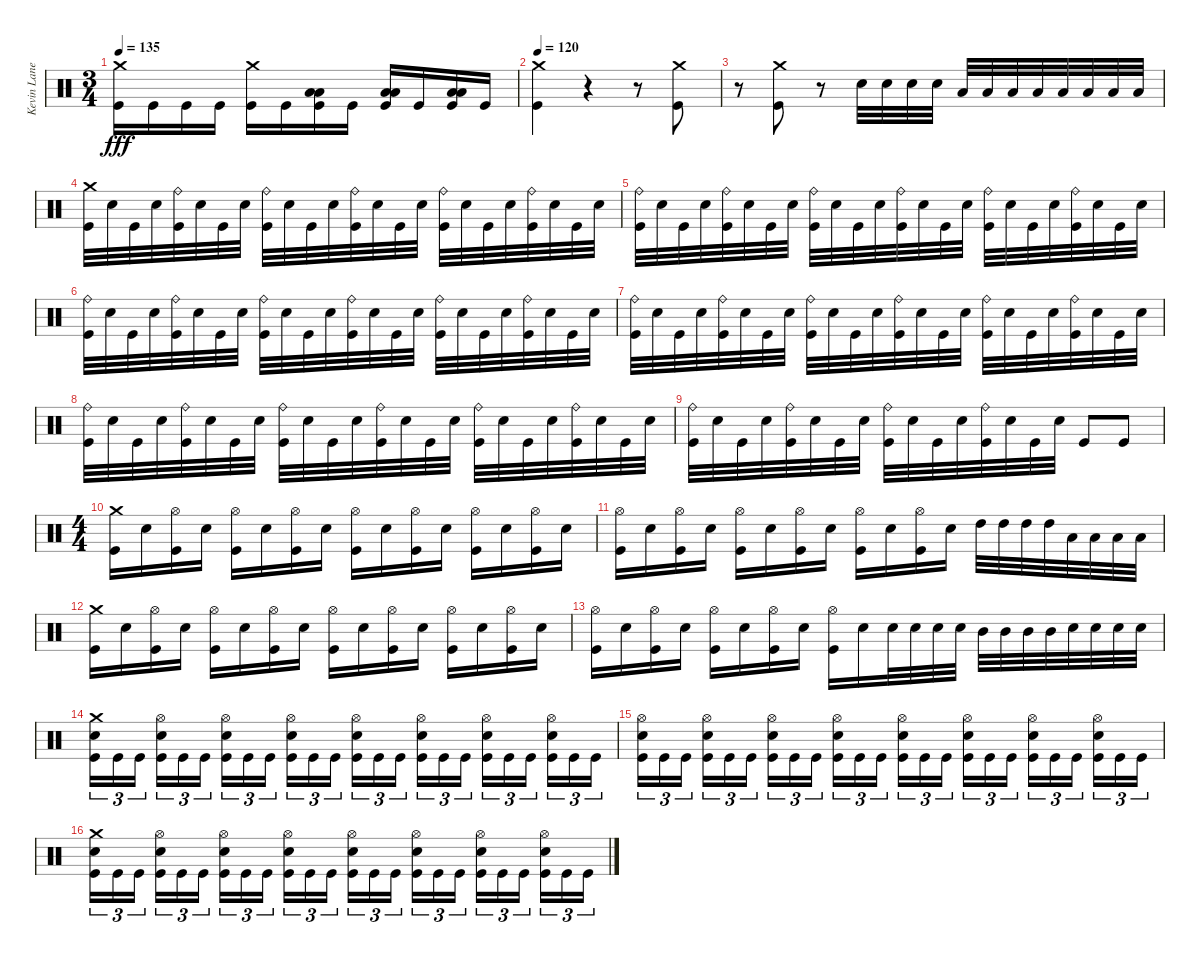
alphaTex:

\track ("Kevin Lane" "Kevin Lane") {instrument percussion}
\staff {score}
\articulation defaults
\ts (3 4)
\tempo 135
\clef neutral
\ks c
("Crash medium (hit)" "Kick (hit)").16{dy fff} "Kick (hit)".16 "Kick (hit)".16 "Kick (hit)".16 ("Crash medium (hit)" "Kick (hit)").16 "Kick (hit)".16 ("Low Tom (hit)" "Low Floor Tom (hit)" "Kick (hit)").16 "Kick (hit)".16 ("Low Tom (hit)" "Low Floor Tom (hit)" "Kick (hit)").16 "Kick (hit)".16 ("Low Tom (hit)" "Low Floor Tom (hit)" "Kick (hit)").16 "Kick (hit)".16 |
\tempo 119
\tempo 120
("Crash medium (hit)" "Kick (hit)").4 r.4 r.8 ("Crash medium (hit)" "Kick (hit)").8 |
r.8{volume 0} ("Crash medium (hit)" "Kick (hit)").8{volume 13} r.8{volume 0} "Snare (hit) 2".32{volume 13} "Snare (hit) 2".32 "Snare (hit) 2".32 "Snare (hit) 2".32 "Low Tom (hit)".32 "Low Tom (hit)".32 "Low Tom (hit)".32 "Low Tom (hit)".32 "Low Floor Tom (hit)".32 "Low Floor Tom (hit)".32 "Low Floor Tom (hit)".32 "Low Floor Tom (hit)".32 |
("Crash medium (hit)" "Kick (hit)").32 "Snare (hit) 2".32 "Kick (hit)".32 "Snare (hit) 2".32 ("Ride (bell)" "Kick (hit)").32 "Snare (hit) 2".32 "Kick (hit)".32 "Snare (hit) 2".32 ("Ride (bell)" "Kick (hit)").32 "Snare (hit) 2".32 "Kick (hit)".32 "Snare (hit) 2".32 ("Ride (bell)" "Kick (hit)").32 "Snare (hit) 2".32 "Kick (hit)".32 "Snare (hit) 2".32 ("Ride (bell)" "Kick (hit)").32 "Snare (hit) 2".32 "Kick (hit)".32 "Snare (hit) 2".32 ("Ride (bell)" "Kick (hit)").32 "Snare (hit) 2".32 "Kick (hit)".32 "Snare (hit) 2".32 |
("Ride (bell)" "Kick (hit)").32 "Snare (hit) 2".32 "Kick (hit)".32 "Snare (hit) 2".32 ("Ride (bell)" "Kick (hit)").32 "Snare (hit) 2".32 "Kick (hit)".32 "Snare (hit) 2".32 ("Ride (bell)" "Kick (hit)").32 "Snare (hit) 2".32 "Kick (hit)".32 "Snare (hit) 2".32 ("Ride (bell)" "Kick (hit)").32 "Snare (hit) 2".32 "Kick (hit)".32 "Snare (hit) 2".32 ("Ride (bell)" "Kick (hit)").32 "Snare (hit) 2".32 "Kick (hit)".32 "Snare (hit) 2".32 ("Ride (bell)" "Kick (hit)").32 "Snare (hit) 2".32 "Kick (hit)".32 "Snare (hit) 2".32 |
("Ride (bell)" "Kick (hit)").32 "Snare (hit) 2".32 "Kick (hit)".32 "Snare (hit) 2".32 ("Ride (bell)" "Kick (hit)").32 "Snare (hit) 2".32 "Kick (hit)".32 "Snare (hit) 2".32 ("Ride (bell)" "Kick (hit)").32 "Snare (hit) 2".32 "Kick (hit)".32 "Snare (hit) 2".32 ("Ride (bell)" "Kick (hit)").32 "Snare (hit) 2".32 "Kick (hit)".32 "Snare (hit) 2".32 ("Ride (bell)" "Kick (hit)").32 "Snare (hit) 2".32 "Kick (hit)".32 "Snare (hit) 2".32 ("Ride (bell)" "Kick (hit)").32 "Snare (hit) 2".32 "Kick (hit)".32 "Snare (hit) 2".32 |
("Ride (bell)" "Kick (hit)").32 "Snare (hit) 2".32 "Kick (hit)".32 "Snare (hit) 2".32 ("Ride (bell)" "Kick (hit)").32 "Snare (hit) 2".32 "Kick (hit)".32 "Snare (hit) 2".32 ("Ride (bell)" "Kick (hit)").32 "Snare (hit) 2".32 "Kick (hit)".32 "Snare (hit) 2".32 ("Ride (bell)" "Kick (hit)").32 "Snare (hit) 2".32 "Kick (hit)".32 "Snare (hit) 2".32 ("Ride (bell)" "Kick (hit)").32 "Snare (hit) 2".32 "Kick (hit)".32 "Snare (hit) 2".32 ("Ride (bell)" "Kick (hit)").32 "Snare (hit) 2".32 "Kick (hit)".32 "Snare (hit) 2".32 |
("Ride (bell)" "Kick (hit)").32 "Snare (hit) 2".32 "Kick (hit)".32 "Snare (hit) 2".32 ("Ride (bell)" "Kick (hit)").32 "Snare (hit) 2".32 "Kick (hit)".32 "Snare (hit) 2".32 ("Ride (bell)" "Kick (hit)").32 "Snare (hit) 2".32 "Kick (hit)".32 "Snare (hit) 2".32 ("Ride (bell)" "Kick (hit)").32 "Snare (hit) 2".32 "Kick (hit)".32 "Snare (hit) 2".32 ("Ride (bell)" "Kick (hit)").32 "Snare (hit) 2".32 "Kick (hit)".32 "Snare (hit) 2".32 ("Ride (bell)" "Kick (hit)").32 "Snare (hit) 2".32 "Kick (hit)".32 "Snare (hit) 2".32 |
("Ride (bell)" "Kick (hit)").32 "Snare (hit) 2".32 "Kick (hit)".32 "Snare (hit) 2".32 ("Ride (bell)" "Kick (hit)").32 "Snare (hit) 2".32 "Kick (hit)".32 "Snare (hit) 2".32 ("Ride (bell)" "Kick (hit)").32 "Snare (hit) 2".32 "Kick (hit)".32 "Snare (hit) 2".32 ("Ride (bell)" "Kick (hit)").32 "Snare (hit) 2".32 "Kick (hit)".32 "Snare (hit) 2".32 "Kick (hit)".8 "Kick (hit)".8 |
\ts (4 4)
("Crash medium (hit)" "Kick (hit)").16 "Snare (hit) 2".16 ("Hi-Hat (open)" "Kick (hit)").16 "Snare (hit) 2".16 ("Hi-Hat (open)" "Kick (hit)").16 "Snare (hit) 2".16 ("Hi-Hat (open)" "Kick (hit)").16 "Snare (hit) 2".16 ("Hi-Hat (open)" "Kick (hit)").16 "Snare (hit) 2".16 ("Hi-Hat (open)" "Kick (hit)").16 "Snare (hit) 2".16 ("Hi-Hat (open)" "Kick (hit)").16 "Snare (hit) 2".16 ("Hi-Hat (open)" "Kick (hit)").16 "Snare (hit) 2".16 |
("Hi-Hat (open)" "Kick (hit)").16 "Snare (hit) 2".16 ("Hi-Hat (open)" "Kick (hit)").16 "Snare (hit) 2".16 ("Hi-Hat (open)" "Kick (hit)").16 "Snare (hit) 2".16 ("Hi-Hat (open)" "Kick (hit)").16 "Snare (hit) 2".16 ("Hi-Hat (open)" "Kick (hit)").16 "Snare (hit) 2".16 ("Hi-Hat (open)" "Kick (hit)").16 "Snare (hit) 2".16 "High Tom (hit)".32 "High Tom (hit)".32 "High Tom (hit)".32 "High Tom (hit)".32 "Low Tom (hit)".32 "Low Tom (hit)".32 "Low Tom (hit)".32 "Low Tom (hit)".32 |
("Crash medium (hit)" "Kick (hit)").16 "Snare (hit) 2".16 ("Hi-Hat (open)" "Kick (hit)").16 "Snare (hit) 2".16 ("Hi-Hat (open)" "Kick (hit)").16 "Snare (hit) 2".16 ("Hi-Hat (open)" "Kick (hit)").16 "Snare (hit) 2".16 ("Hi-Hat (open)" "Kick (hit)").16 "Snare (hit) 2".16 ("Hi-Hat (open)" "Kick (hit)").16 "Snare (hit) 2".16 ("Hi-Hat (open)" "Kick (hit)").16 "Snare (hit) 2".16 ("Hi-Hat (open)" "Kick (hit)").16 "Snare (hit) 2".16 |
("Hi-Hat (open)" "Kick (hit)").16 "Snare (hit) 2".16 ("Hi-Hat (open)" "Kick (hit)").16 "Snare (hit) 2".16 ("Hi-Hat (open)" "Kick (hit)").16 "Snare (hit) 2".16 ("Hi-Hat (open)" "Kick (hit)").16 "Snare (hit) 2".16 ("Hi-Hat (open)" "Kick (hit)").16 "Snare (hit) 2".16 "Snare (hit) 2".32 "Snare (hit) 2".32 "Snare (hit) 2".32 "Snare (hit) 2".32 "Mid Tom (hit)".32 "Mid Tom (hit)".32 "Mid Tom (hit)".32 "Mid Tom (hit)".32 "Snare (hit) 2".32 "Snare (hit) 2".32 "Snare (hit) 2".32 "Snare (hit) 2".32 |
("Crash medium (hit)" "Snare (hit) 2" "Kick (hit)").16{tu (3 2)} "Kick (hit)".16{tu (3 2)} "Kick (hit)".16{tu (3 2) beam splitsecondary} ("Hi-Hat (open)" "Snare (hit) 2" "Kick (hit)").16{tu (3 2)} "Kick (hit)".16{tu (3 2)} "Kick (hit)".16{tu (3 2)} ("Hi-Hat (open)" "Snare (hit) 2" "Kick (hit)").16{tu (3 2)} "Kick (hit)".16{tu (3 2)} "Kick (hit)".16{tu (3 2) beam splitsecondary} ("Hi-Hat (open)" "Snare (hit) 2" "Kick (hit)").16{tu (3 2)} "Kick (hit)".16{tu (3 2)} "Kick (hit)".16{tu (3 2)} ("Hi-Hat (open)" "Snare (hit) 2" "Kick (hit)").16{tu (3 2)} "Kick (hit)".16{tu (3 2)} "Kick (hit)".16{tu (3 2) beam splitsecondary} ("Hi-Hat (open)" "Snare (hit) 2" "Kick (hit)").16{tu (3 2)} "Kick (hit)".16{tu (3 2)} "Kick (hit)".16{tu (3 2)} ("Hi-Hat (open)" "Snare (hit) 2" "Kick (hit)").16{tu (3 2)} "Kick (hit)".16{tu (3 2)} "Kick (hit)".16{tu (3 2) beam splitsecondary} ("Hi-Hat (open)" "Snare (hit) 2" "Kick (hit)").16{tu (3 2)} "Kick (hit)".16{tu (3 2)} "Kick (hit)".16{tu (3 2)} |
("Hi-Hat (open)" "Snare (hit) 2" "Kick (hit)").16{tu (3 2)} "Kick (hit)".16{tu (3 2)} "Kick (hit)".16{tu (3 2) beam splitsecondary} ("Hi-Hat (open)" "Snare (hit) 2" "Kick (hit)").16{tu (3 2)} "Kick (hit)".16{tu (3 2)} "Kick (hit)".16{tu (3 2)} ("Hi-Hat (open)" "Snare (hit) 2" "Kick (hit)").16{tu (3 2)} "Kick (hit)".16{tu (3 2)} "Kick (hit)".16{tu (3 2) beam splitsecondary} ("Hi-Hat (open)" "Snare (hit) 2" "Kick (hit)").16{tu (3 2)} "Kick (hit)".16{tu (3 2)} "Kick (hit)".16{tu (3 2)} ("Hi-Hat (open)" "Snare (hit) 2" "Kick (hit)").16{tu (3 2)} "Kick (hit)".16{tu (3 2)} "Kick (hit)".16{tu (3 2) beam splitsecondary} ("Hi-Hat (open)" "Snare (hit) 2" "Kick (hit)").16{tu (3 2)} "Kick (hit)".16{tu (3 2)} "Kick (hit)".16{tu (3 2)} ("Hi-Hat (open)" "Snare (hit) 2" "Kick (hit)").16{tu (3 2)} "Kick (hit)".16{tu (3 2)} "Kick (hit)".16{tu (3 2) beam splitsecondary} ("Hi-Hat (open)" "Snare (hit) 2" "Kick (hit)").16{tu (3 2)} "Kick (hit)".16{tu (3 2)} "Kick (hit)".16{tu (3 2)} |
("Crash medium (hit)" "Snare (hit) 2" "Kick (hit)").16{tu (3 2)} "Kick (hit)".16{tu (3 2)} "Kick (hit)".16{tu (3 2) beam splitsecondary} ("Hi-Hat (open)" "Snare (hit) 2" "Kick (hit)").16{tu (3 2)} "Kick (hit)".16{tu (3 2)} "Kick (hit)".16{tu (3 2)} ("Hi-Hat (open)" "Snare (hit) 2" "Kick (hit)").16{tu (3 2)} "Kick (hit)".16{tu (3 2)} "Kick (hit)".16{tu (3 2) beam splitsecondary} ("Hi-Hat (open)" "Snare (hit) 2" "Kick (hit)").16{tu (3 2)} "Kick (hit)".16{tu (3 2)} "Kick (hit)".16{tu (3 2)} ("Hi-Hat (open)" "Snare (hit) 2" "Kick (hit)").16{tu (3 2)} "Kick (hit)".16{tu (3 2)} "Kick (hit)".16{tu (3 2) beam splitsecondary} ("Hi-Hat (open)" "Snare (hit) 2" "Kick (hit)").16{tu (3 2)} "Kick (hit)".16{tu (3 2)} "Kick (hit)".16{tu (3 2)} ("Hi-Hat (open)" "Snare (hit) 2" "Kick (hit)").16{tu (3 2)} "Kick (hit)".16{tu (3 2)} "Kick (hit)".16{tu (3 2) beam splitsecondary} ("Hi-Hat (open)" "Snare (hit) 2" "Kick (hit)").16{tu (3 2)} "Kick (hit)".16{tu (3 2)} "Kick (hit)".16{tu (3 2)}
